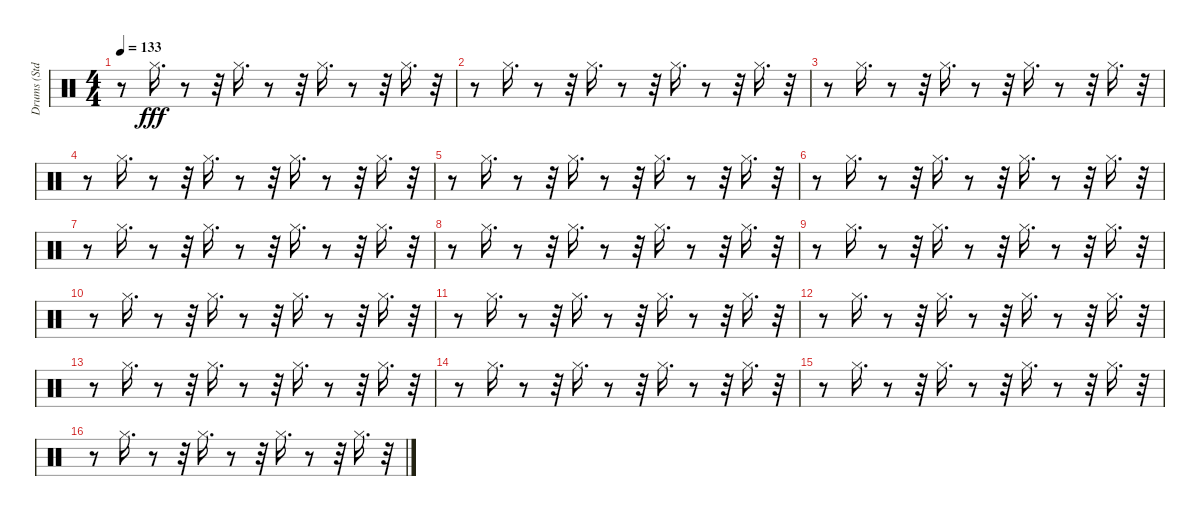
\track ("Drums (Std.)" "Drums (Std") {instrument percussion}
\staff {score}
\articulation defaults
\ts (4 4)
\tempo 133
\clef neutral
\ks c
r.8{dy fff} "Hi-Hat (closed)".16{d} r.8 r.32 "Hi-Hat (closed)".16{d} r.8 r.32 "Hi-Hat (closed)".16{d} r.8 r.32 "Hi-Hat (closed)".16{d} r.32 |
r.8 "Hi-Hat (closed)".16{d} r.8 r.32 "Hi-Hat (closed)".16{d} r.8 r.32 "Hi-Hat (closed)".16{d} r.8 r.32 "Hi-Hat (closed)".16{d} r.32 |
r.8 "Hi-Hat (closed)".16{d} r.8 r.32 "Hi-Hat (closed)".16{d} r.8 r.32 "Hi-Hat (closed)".16{d} r.8 r.32 "Hi-Hat (closed)".16{d} r.32 |
r.8 "Hi-Hat (closed)".16{d} r.8 r.32 "Hi-Hat (closed)".16{d} r.8 r.32 "Hi-Hat (closed)".16{d} r.8 r.32 "Hi-Hat (closed)".16{d} r.32 |
r.8 "Hi-Hat (closed)".16{d} r.8 r.32 "Hi-Hat (closed)".16{d} r.8 r.32 "Hi-Hat (closed)".16{d} r.8 r.32 "Hi-Hat (closed)".16{d} r.32 |
r.8 "Hi-Hat (closed)".16{d} r.8 r.32 "Hi-Hat (closed)".16{d} r.8 r.32 "Hi-Hat (closed)".16{d} r.8 r.32 "Hi-Hat (closed)".16{d} r.32 |
r.8 "Hi-Hat (closed)".16{d} r.8 r.32 "Hi-Hat (closed)".16{d} r.8 r.32 "Hi-Hat (closed)".16{d} r.8 r.32 "Hi-Hat (closed)".16{d} r.32 |
r.8 "Hi-Hat (closed)".16{d} r.8 r.32 "Hi-Hat (closed)".16{d} r.8 r.32 "Hi-Hat (closed)".16{d} r.8 r.32 "Hi-Hat (closed)".16{d} r.32 |
r.8 "Hi-Hat (closed)".16{d} r.8 r.32 "Hi-Hat (closed)".16{d} r.8 r.32 "Hi-Hat (closed)".16{d} r.8 r.32 "Hi-Hat (closed)".16{d} r.32 |
r.8 "Hi-Hat (closed)".16{d} r.8 r.32 "Hi-Hat (closed)".16{d} r.8 r.32 "Hi-Hat (closed)".16{d} r.8 r.32 "Hi-Hat (closed)".16{d} r.32 |
r.8 "Hi-Hat (closed)".16{d} r.8 r.32 "Hi-Hat (closed)".16{d} r.8 r.32 "Hi-Hat (closed)".16{d} r.8 r.32 "Hi-Hat (closed)".16{d} r.32 |
r.8 "Hi-Hat (closed)".16{d} r.8 r.32 "Hi-Hat (closed)".16{d} r.8 r.32 "Hi-Hat (closed)".16{d} r.8 r.32 "Hi-Hat (closed)".16{d} r.32 |
r.8 "Hi-Hat (closed)".16{d} r.8 r.32 "Hi-Hat (closed)".16{d} r.8 r.32 "Hi-Hat (closed)".16{d} r.8 r.32 "Hi-Hat (closed)".16{d} r.32 |
r.8 "Hi-Hat (closed)".16{d} r.8 r.32 "Hi-Hat (closed)".16{d} r.8 r.32 "Hi-Hat (closed)".16{d} r.8 r.32 "Hi-Hat (closed)".16{d} r.32 |
r.8 "Hi-Hat (closed)".16{d} r.8 r.32 "Hi-Hat (closed)".16{d} r.8 r.32 "Hi-Hat (closed)".16{d} r.8 r.32 "Hi-Hat (closed)".16{d} r.32 |
r.8 "Hi-Hat (closed)".16{d} r.8 r.32 "Hi-Hat (closed)".16{d} r.8 r.32 "Hi-Hat (closed)".16{d} r.8 r.32 "Hi-Hat (closed)".16{d} r.32
